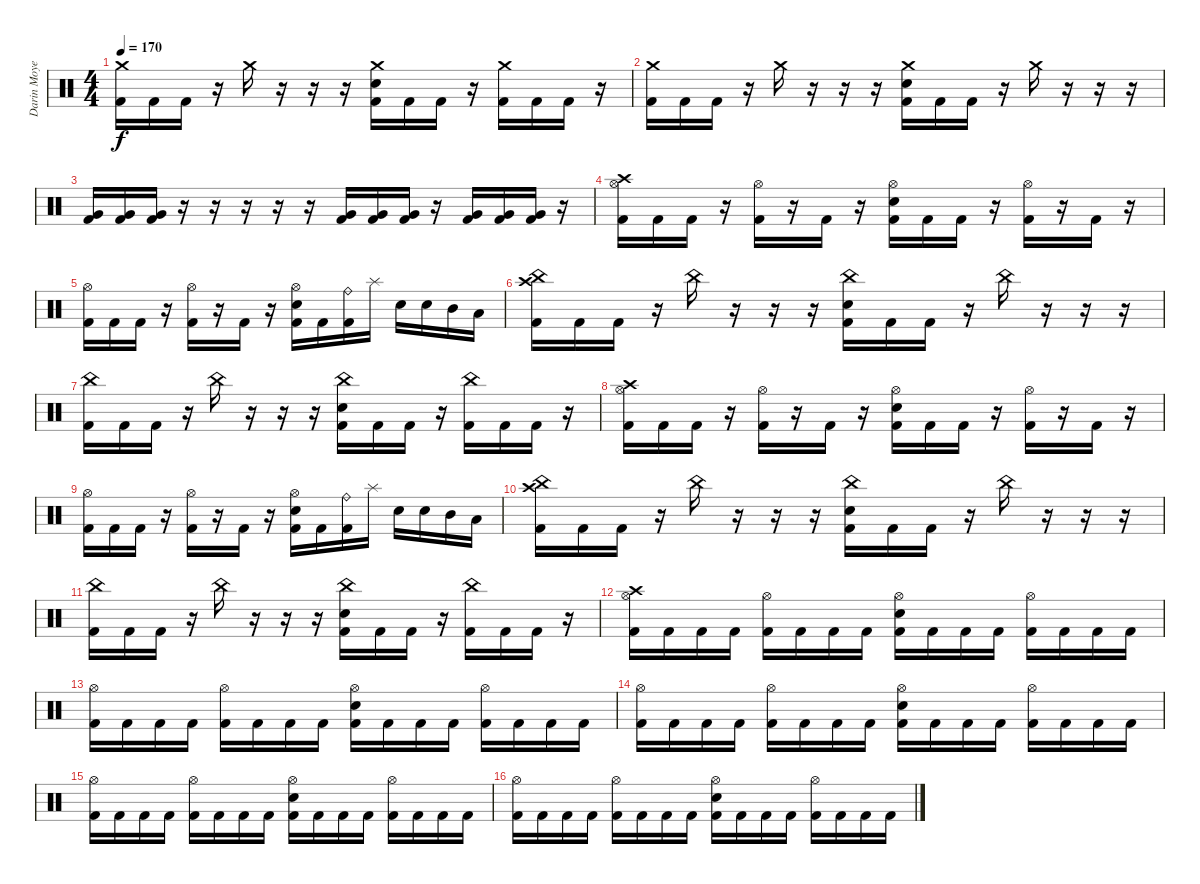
\track ("Darin Moyen" "Darin Moye") {instrument percussion}
\staff {score}
\articulation defaults
\ts (4 4)
\tempo 170
\clef neutral
\ks c
("Crash medium (hit)" "Kick (hit) 2").16{dy f} "Kick (hit) 2".16 "Kick (hit) 2".16 r.16 "Crash medium (hit)".16 r.16 r.16 r.16 ("Crash medium (hit)" "Electric Snare (hit)" "Kick (hit) 2").16 "Kick (hit) 2".16 "Kick (hit) 2".16 r.16 ("Crash medium (hit)" "Kick (hit) 2").16 "Kick (hit) 2".16 "Kick (hit) 2".16 r.16 |
("Crash medium (hit)" "Kick (hit) 2").16 "Kick (hit) 2".16 "Kick (hit) 2".16 r.16 "Crash medium (hit)".16 r.16 r.16 r.16 ("Crash medium (hit)" "Electric Snare (hit)" "Kick (hit) 2").16 "Kick (hit) 2".16 "Kick (hit) 2".16 r.16 "Crash medium (hit)".16 r.16 r.16 r.16 |
("Very Low Tom (hit)" "Kick (hit) 2").16 ("Very Low Tom (hit)" "Kick (hit) 2").16 ("Very Low Tom (hit)" "Kick (hit) 2").16 r.16 r.16 r.16 r.16 r.16 ("Very Low Tom (hit)" "Kick (hit) 2").16 ("Very Low Tom (hit)" "Kick (hit) 2").16 ("Very Low Tom (hit)" "Kick (hit) 2").16 r.16 ("Very Low Tom (hit)" "Kick (hit) 2").16 ("Very Low Tom (hit)" "Kick (hit) 2").16 ("Very Low Tom (hit)" "Kick (hit) 2").16 r.16 |
("Crash high (hit)" "Hi-Hat (open)" "Kick (hit) 2").16 "Kick (hit) 2".16 "Kick (hit) 2".16 r.16 ("Hi-Hat (open)" "Kick (hit) 2").16 r.16 "Kick (hit) 2".16 r.16 ("Hi-Hat (open)" "Electric Snare (hit)" "Kick (hit) 2").16 "Kick (hit) 2".16 "Kick (hit) 2".16 r.16 ("Hi-Hat (open)" "Kick (hit) 2").16 r.16 "Kick (hit) 2".16 r.16 |
("Hi-Hat (open)" "Kick (hit) 2").16 "Kick (hit) 2".16 "Kick (hit) 2".16 r.16 ("Hi-Hat (open)" "Kick (hit) 2").16 r.16 "Kick (hit) 2".16 r.16 ("Hi-Hat (open)" "Electric Snare (hit)" "Kick (hit) 2").16 "Kick (hit) 2".16 ("Ride (bell)" "Kick (hit) 2").16 "Splash (hit)".16 "Electric Snare (hit)".16 "Electric Snare (hit)".16 "Mid Tom (hit)".16 "Low Tom (hit)".16 |
("Crash high (hit)" "China (hit)" "Kick (hit) 2").16 "Kick (hit) 2".16 "Kick (hit) 2".16 r.16 "China (hit)".16 r.16 r.16 r.16 ("China (hit)" "Electric Snare (hit)" "Kick (hit) 2").16 "Kick (hit) 2".16 "Kick (hit) 2".16 r.16 "China (hit)".16 r.16 r.16 r.16 |
("China (hit)" "Kick (hit) 2").16 "Kick (hit) 2".16 "Kick (hit) 2".16 r.16 "China (hit)".16 r.16 r.16 r.16 ("China (hit)" "Electric Snare (hit)" "Kick (hit) 2").16 "Kick (hit) 2".16 "Kick (hit) 2".16 r.16 ("China (hit)" "Kick (hit) 2").16 "Kick (hit) 2".16 "Kick (hit) 2".16 r.16 |
("Crash high (hit)" "Hi-Hat (open)" "Kick (hit) 2").16 "Kick (hit) 2".16 "Kick (hit) 2".16 r.16 ("Hi-Hat (open)" "Kick (hit) 2").16 r.16 "Kick (hit) 2".16 r.16 ("Hi-Hat (open)" "Electric Snare (hit)" "Kick (hit) 2").16 "Kick (hit) 2".16 "Kick (hit) 2".16 r.16 ("Hi-Hat (open)" "Kick (hit) 2").16 r.16 "Kick (hit) 2".16 r.16 |
("Hi-Hat (open)" "Kick (hit) 2").16 "Kick (hit) 2".16 "Kick (hit) 2".16 r.16 ("Hi-Hat (open)" "Kick (hit) 2").16 r.16 "Kick (hit) 2".16 r.16 ("Hi-Hat (open)" "Electric Snare (hit)" "Kick (hit) 2").16 "Kick (hit) 2".16 ("Ride (bell)" "Kick (hit) 2").16 "Splash (hit)".16 "Electric Snare (hit)".16 "Electric Snare (hit)".16 "Mid Tom (hit)".16 "Low Tom (hit)".16 |
("Crash high (hit)" "China (hit)" "Kick (hit) 2").16 "Kick (hit) 2".16 "Kick (hit) 2".16 r.16 "China (hit)".16 r.16 r.16 r.16 ("China (hit)" "Electric Snare (hit)" "Kick (hit) 2").16 "Kick (hit) 2".16 "Kick (hit) 2".16 r.16 "China (hit)".16 r.16 r.16 r.16 |
("China (hit)" "Kick (hit) 2").16 "Kick (hit) 2".16 "Kick (hit) 2".16 r.16 "China (hit)".16 r.16 r.16 r.16 ("China (hit)" "Electric Snare (hit)" "Kick (hit) 2").16 "Kick (hit) 2".16 "Kick (hit) 2".16 r.16 ("China (hit)" "Kick (hit) 2").16 "Kick (hit) 2".16 "Kick (hit) 2".16 r.16 |
("Crash high (hit)" "Hi-Hat (open)" "Kick (hit) 2").16 "Kick (hit) 2".16 "Kick (hit) 2".16 "Kick (hit) 2".16 ("Hi-Hat (open)" "Kick (hit) 2").16 "Kick (hit) 2".16 "Kick (hit) 2".16 "Kick (hit) 2".16 ("Hi-Hat (open)" "Electric Snare (hit)" "Kick (hit) 2").16 "Kick (hit) 2".16 "Kick (hit) 2".16 "Kick (hit) 2".16 ("Hi-Hat (open)" "Kick (hit) 2").16 "Kick (hit) 2".16 "Kick (hit) 2".16 "Kick (hit) 2".16 |
("Hi-Hat (open)" "Kick (hit) 2").16 "Kick (hit) 2".16 "Kick (hit) 2".16 "Kick (hit) 2".16 ("Hi-Hat (open)" "Kick (hit) 2").16 "Kick (hit) 2".16 "Kick (hit) 2".16 "Kick (hit) 2".16 ("Hi-Hat (open)" "Electric Snare (hit)" "Kick (hit) 2").16 "Kick (hit) 2".16 "Kick (hit) 2".16 "Kick (hit) 2".16 ("Hi-Hat (open)" "Kick (hit) 2").16 "Kick (hit) 2".16 "Kick (hit) 2".16 "Kick (hit) 2".16 |
("Hi-Hat (open)" "Kick (hit) 2").16 "Kick (hit) 2".16 "Kick (hit) 2".16 "Kick (hit) 2".16 ("Hi-Hat (open)" "Kick (hit) 2").16 "Kick (hit) 2".16 "Kick (hit) 2".16 "Kick (hit) 2".16 ("Hi-Hat (open)" "Electric Snare (hit)" "Kick (hit) 2").16 "Kick (hit) 2".16 "Kick (hit) 2".16 "Kick (hit) 2".16 ("Hi-Hat (open)" "Kick (hit) 2").16 "Kick (hit) 2".16 "Kick (hit) 2".16 "Kick (hit) 2".16 |
("Hi-Hat (open)" "Kick (hit) 2").16 "Kick (hit) 2".16 "Kick (hit) 2".16 "Kick (hit) 2".16 ("Hi-Hat (open)" "Kick (hit) 2").16 "Kick (hit) 2".16 "Kick (hit) 2".16 "Kick (hit) 2".16 ("Hi-Hat (open)" "Electric Snare (hit)" "Kick (hit) 2").16 "Kick (hit) 2".16 "Kick (hit) 2".16 "Kick (hit) 2".16 ("Hi-Hat (open)" "Kick (hit) 2").16 "Kick (hit) 2".16 "Kick (hit) 2".16 "Kick (hit) 2".16 |
("Hi-Hat (open)" "Kick (hit) 2").16 "Kick (hit) 2".16 "Kick (hit) 2".16 "Kick (hit) 2".16 ("Hi-Hat (open)" "Kick (hit) 2").16 "Kick (hit) 2".16 "Kick (hit) 2".16 "Kick (hit) 2".16 ("Hi-Hat (open)" "Electric Snare (hit)" "Kick (hit) 2").16 "Kick (hit) 2".16 "Kick (hit) 2".16 "Kick (hit) 2".16 ("Hi-Hat (open)" "Kick (hit) 2").16 "Kick (hit) 2".16 "Kick (hit) 2".16 "Kick (hit) 2".16
